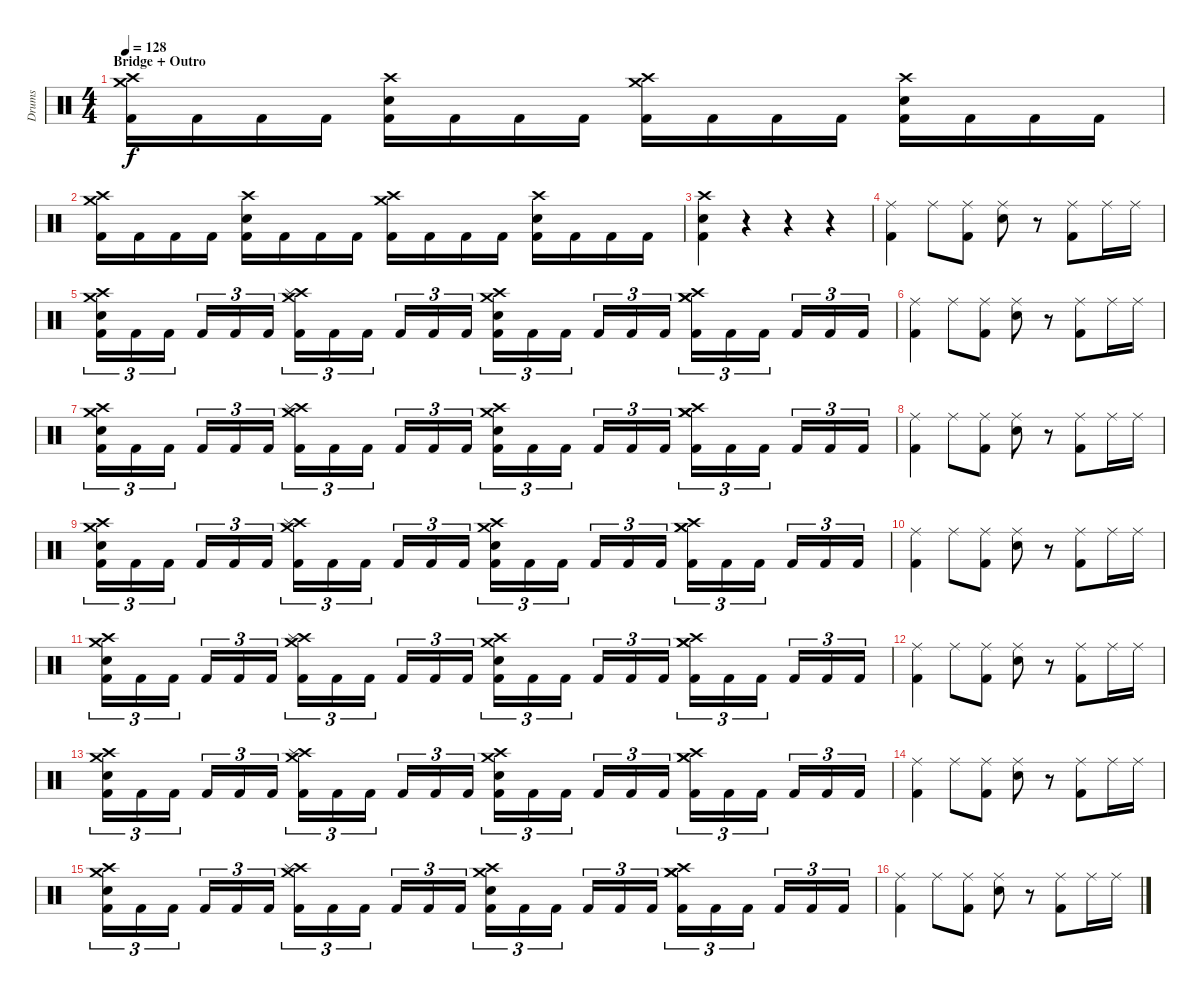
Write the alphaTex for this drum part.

\track ("Drums" "Drums") {instrument percussion}
\staff {score}
\articulation defaults
\ts (4 4)
\section ("" "Bridge + Outro")
\tempo 128
\clef neutral
\ks c
("Crash high (hit)" "Crash medium (hit)" "Kick (hit) 2").16{dy f} "Kick (hit) 2".16 "Kick (hit) 2".16 "Kick (hit) 2".16 ("Crash high (hit)" "Snare (hit) 2" "Kick (hit) 2").16 "Kick (hit) 2".16 "Kick (hit) 2".16 "Kick (hit) 2".16 ("Crash high (hit)" "Crash medium (hit)" "Kick (hit) 2").16 "Kick (hit) 2".16 "Kick (hit) 2".16 "Kick (hit) 2".16 ("Crash high (hit)" "Snare (hit) 2" "Kick (hit) 2").16 "Kick (hit) 2".16 "Kick (hit) 2".16 "Kick (hit) 2".16 |
("Crash high (hit)" "Crash medium (hit)" "Kick (hit) 2").16 "Kick (hit) 2".16 "Kick (hit) 2".16 "Kick (hit) 2".16 ("Crash high (hit)" "Snare (hit) 2" "Kick (hit) 2").16 "Kick (hit) 2".16 "Kick (hit) 2".16 "Kick (hit) 2".16 ("Crash high (hit)" "Crash medium (hit)" "Kick (hit) 2").16 "Kick (hit) 2".16 "Kick (hit) 2".16 "Kick (hit) 2".16 ("Crash high (hit)" "Snare (hit) 2" "Kick (hit) 2").16 "Kick (hit) 2".16 "Kick (hit) 2".16 "Kick (hit) 2".16 |
("Crash high (hit)" "Snare (hit) 2" "Kick (hit) 2").4 r.4 r.4 r.4 |
("Ride (middle)" "Kick (hit) 2").4 "Ride (middle)".8 ("Ride (middle)" "Kick (hit) 2").8 ("Ride (middle)" "Snare (hit) 2").8 r.8 ("Ride (middle)" "Kick (hit) 2").8 "Ride (middle)".16 "Ride (middle)".16 |
("Crash medium (hit)" "Snare (hit) 2" "Crash high (hit)" "Kick (hit) 2").16{tu (3 2)} "Kick (hit) 2".16{tu (3 2)} "Kick (hit) 2".16{tu (3 2)} "Kick (hit) 2".16{tu (3 2)} "Kick (hit) 2".16{tu (3 2)} "Kick (hit) 2".16{tu (3 2)} ("Crash medium (hit)" "Crash high (hit)" "Splash (hit)" "Kick (hit) 2").16{tu (3 2)} "Kick (hit) 2".16{tu (3 2)} "Kick (hit) 2".16{tu (3 2)} "Kick (hit) 2".16{tu (3 2)} "Kick (hit) 2".16{tu (3 2)} "Kick (hit) 2".16{tu (3 2)} ("Crash high (hit)" "Snare (hit) 2" "Crash medium (hit)" "Kick (hit) 2").16{tu (3 2)} "Kick (hit) 2".16{tu (3 2)} "Kick (hit) 2".16{tu (3 2)} "Kick (hit) 2".16{tu (3 2)} "Kick (hit) 2".16{tu (3 2)} "Kick (hit) 2".16{tu (3 2)} ("Crash high (hit)" "Crash medium (hit)" "Crash medium (hit)" "Kick (hit) 2").16{tu (3 2)} "Kick (hit) 2".16{tu (3 2)} "Kick (hit) 2".16{tu (3 2)} "Kick (hit) 2".16{tu (3 2)} "Kick (hit) 2".16{tu (3 2)} "Kick (hit) 2".16{tu (3 2)} |
("Ride (middle)" "Kick (hit) 2").4 "Ride (middle)".8 ("Ride (middle)" "Kick (hit) 2").8 ("Ride (middle)" "Snare (hit) 2").8 r.8 ("Ride (middle)" "Kick (hit) 2").8 "Ride (middle)".16 "Ride (middle)".16 |
("Crash medium (hit)" "Snare (hit) 2" "Crash high (hit)" "Kick (hit) 2").16{tu (3 2)} "Kick (hit) 2".16{tu (3 2)} "Kick (hit) 2".16{tu (3 2)} "Kick (hit) 2".16{tu (3 2)} "Kick (hit) 2".16{tu (3 2)} "Kick (hit) 2".16{tu (3 2)} ("Crash medium (hit)" "Crash high (hit)" "Splash (hit)" "Kick (hit) 2").16{tu (3 2)} "Kick (hit) 2".16{tu (3 2)} "Kick (hit) 2".16{tu (3 2)} "Kick (hit) 2".16{tu (3 2)} "Kick (hit) 2".16{tu (3 2)} "Kick (hit) 2".16{tu (3 2)} ("Crash high (hit)" "Snare (hit) 2" "Crash medium (hit)" "Kick (hit) 2").16{tu (3 2)} "Kick (hit) 2".16{tu (3 2)} "Kick (hit) 2".16{tu (3 2)} "Kick (hit) 2".16{tu (3 2)} "Kick (hit) 2".16{tu (3 2)} "Kick (hit) 2".16{tu (3 2)} ("Crash high (hit)" "Crash medium (hit)" "Crash medium (hit)" "Kick (hit) 2").16{tu (3 2)} "Kick (hit) 2".16{tu (3 2)} "Kick (hit) 2".16{tu (3 2)} "Kick (hit) 2".16{tu (3 2)} "Kick (hit) 2".16{tu (3 2)} "Kick (hit) 2".16{tu (3 2)} |
("Ride (middle)" "Kick (hit) 2").4 "Ride (middle)".8 ("Ride (middle)" "Kick (hit) 2").8 ("Ride (middle)" "Snare (hit) 2").8 r.8 ("Ride (middle)" "Kick (hit) 2").8 "Ride (middle)".16 "Ride (middle)".16 |
("Crash medium (hit)" "Snare (hit) 2" "Crash high (hit)" "Kick (hit) 2").16{tu (3 2)} "Kick (hit) 2".16{tu (3 2)} "Kick (hit) 2".16{tu (3 2)} "Kick (hit) 2".16{tu (3 2)} "Kick (hit) 2".16{tu (3 2)} "Kick (hit) 2".16{tu (3 2)} ("Crash medium (hit)" "Crash high (hit)" "Splash (hit)" "Kick (hit) 2").16{tu (3 2)} "Kick (hit) 2".16{tu (3 2)} "Kick (hit) 2".16{tu (3 2)} "Kick (hit) 2".16{tu (3 2)} "Kick (hit) 2".16{tu (3 2)} "Kick (hit) 2".16{tu (3 2)} ("Crash high (hit)" "Snare (hit) 2" "Crash medium (hit)" "Kick (hit) 2").16{tu (3 2)} "Kick (hit) 2".16{tu (3 2)} "Kick (hit) 2".16{tu (3 2)} "Kick (hit) 2".16{tu (3 2)} "Kick (hit) 2".16{tu (3 2)} "Kick (hit) 2".16{tu (3 2)} ("Crash high (hit)" "Crash medium (hit)" "Crash medium (hit)" "Kick (hit) 2").16{tu (3 2)} "Kick (hit) 2".16{tu (3 2)} "Kick (hit) 2".16{tu (3 2)} "Kick (hit) 2".16{tu (3 2)} "Kick (hit) 2".16{tu (3 2)} "Kick (hit) 2".16{tu (3 2)} |
("Ride (middle)" "Kick (hit) 2").4 "Ride (middle)".8 ("Ride (middle)" "Kick (hit) 2").8 ("Ride (middle)" "Snare (hit) 2").8 r.8 ("Ride (middle)" "Kick (hit) 2").8 "Ride (middle)".16 "Ride (middle)".16 |
("Crash medium (hit)" "Snare (hit) 2" "Crash high (hit)" "Kick (hit) 2").16{tu (3 2)} "Kick (hit) 2".16{tu (3 2)} "Kick (hit) 2".16{tu (3 2)} "Kick (hit) 2".16{tu (3 2)} "Kick (hit) 2".16{tu (3 2)} "Kick (hit) 2".16{tu (3 2)} ("Crash medium (hit)" "Crash high (hit)" "Splash (hit)" "Kick (hit) 2").16{tu (3 2)} "Kick (hit) 2".16{tu (3 2)} "Kick (hit) 2".16{tu (3 2)} "Kick (hit) 2".16{tu (3 2)} "Kick (hit) 2".16{tu (3 2)} "Kick (hit) 2".16{tu (3 2)} ("Crash high (hit)" "Snare (hit) 2" "Crash medium (hit)" "Kick (hit) 2").16{tu (3 2)} "Kick (hit) 2".16{tu (3 2)} "Kick (hit) 2".16{tu (3 2)} "Kick (hit) 2".16{tu (3 2)} "Kick (hit) 2".16{tu (3 2)} "Kick (hit) 2".16{tu (3 2)} ("Crash high (hit)" "Crash medium (hit)" "Crash medium (hit)" "Kick (hit) 2").16{tu (3 2)} "Kick (hit) 2".16{tu (3 2)} "Kick (hit) 2".16{tu (3 2)} "Kick (hit) 2".16{tu (3 2)} "Kick (hit) 2".16{tu (3 2)} "Kick (hit) 2".16{tu (3 2)} |
("Ride (middle)" "Kick (hit) 2").4 "Ride (middle)".8 ("Ride (middle)" "Kick (hit) 2").8 ("Ride (middle)" "Snare (hit) 2").8 r.8 ("Ride (middle)" "Kick (hit) 2").8 "Ride (middle)".16 "Ride (middle)".16 |
("Crash medium (hit)" "Snare (hit) 2" "Crash high (hit)" "Kick (hit) 2").16{tu (3 2)} "Kick (hit) 2".16{tu (3 2)} "Kick (hit) 2".16{tu (3 2)} "Kick (hit) 2".16{tu (3 2)} "Kick (hit) 2".16{tu (3 2)} "Kick (hit) 2".16{tu (3 2)} ("Crash medium (hit)" "Crash high (hit)" "Splash (hit)" "Kick (hit) 2").16{tu (3 2)} "Kick (hit) 2".16{tu (3 2)} "Kick (hit) 2".16{tu (3 2)} "Kick (hit) 2".16{tu (3 2)} "Kick (hit) 2".16{tu (3 2)} "Kick (hit) 2".16{tu (3 2)} ("Crash high (hit)" "Snare (hit) 2" "Crash medium (hit)" "Kick (hit) 2").16{tu (3 2)} "Kick (hit) 2".16{tu (3 2)} "Kick (hit) 2".16{tu (3 2)} "Kick (hit) 2".16{tu (3 2)} "Kick (hit) 2".16{tu (3 2)} "Kick (hit) 2".16{tu (3 2)} ("Crash high (hit)" "Crash medium (hit)" "Crash medium (hit)" "Kick (hit) 2").16{tu (3 2)} "Kick (hit) 2".16{tu (3 2)} "Kick (hit) 2".16{tu (3 2)} "Kick (hit) 2".16{tu (3 2)} "Kick (hit) 2".16{tu (3 2)} "Kick (hit) 2".16{tu (3 2)} |
("Ride (middle)" "Kick (hit) 2").4 "Ride (middle)".8 ("Ride (middle)" "Kick (hit) 2").8 ("Ride (middle)" "Snare (hit) 2").8 r.8 ("Ride (middle)" "Kick (hit) 2").8 "Ride (middle)".16 "Ride (middle)".16 |
("Crash medium (hit)" "Snare (hit) 2" "Crash high (hit)" "Kick (hit) 2").16{tu (3 2)} "Kick (hit) 2".16{tu (3 2)} "Kick (hit) 2".16{tu (3 2)} "Kick (hit) 2".16{tu (3 2)} "Kick (hit) 2".16{tu (3 2)} "Kick (hit) 2".16{tu (3 2)} ("Crash medium (hit)" "Crash high (hit)" "Splash (hit)" "Kick (hit) 2").16{tu (3 2)} "Kick (hit) 2".16{tu (3 2)} "Kick (hit) 2".16{tu (3 2)} "Kick (hit) 2".16{tu (3 2)} "Kick (hit) 2".16{tu (3 2)} "Kick (hit) 2".16{tu (3 2)} ("Crash high (hit)" "Snare (hit) 2" "Crash medium (hit)" "Kick (hit) 2").16{tu (3 2)} "Kick (hit) 2".16{tu (3 2)} "Kick (hit) 2".16{tu (3 2)} "Kick (hit) 2".16{tu (3 2)} "Kick (hit) 2".16{tu (3 2)} "Kick (hit) 2".16{tu (3 2)} ("Crash high (hit)" "Crash medium (hit)" "Crash medium (hit)" "Kick (hit) 2").16{tu (3 2)} "Kick (hit) 2".16{tu (3 2)} "Kick (hit) 2".16{tu (3 2)} "Kick (hit) 2".16{tu (3 2)} "Kick (hit) 2".16{tu (3 2)} "Kick (hit) 2".16{tu (3 2)} |
("Ride (middle)" "Kick (hit) 2").4 "Ride (middle)".8 ("Ride (middle)" "Kick (hit) 2").8 ("Ride (middle)" "Snare (hit) 2").8 r.8 ("Ride (middle)" "Kick (hit) 2").8 "Ride (middle)".16 "Ride (middle)".16
